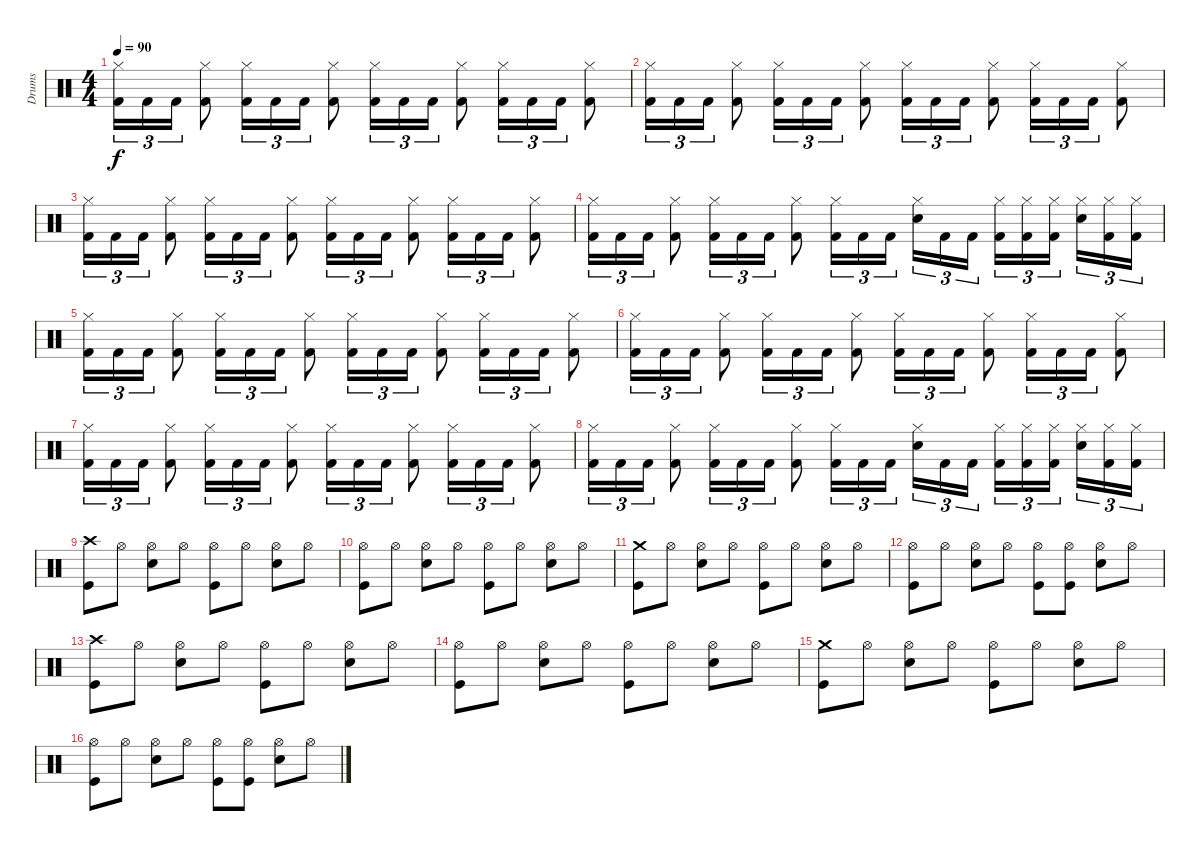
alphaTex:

\track ("Drums" "Drums") {instrument percussion}
\staff {score}
\articulation defaults
\ts (4 4)
\tempo 90
\clef neutral
\ks c
("Hi-Hat (closed)" "Kick (hit) 2").16{tu (3 2) dy f} "Kick (hit) 2".16{tu (3 2)} "Kick (hit) 2".16{tu (3 2)} ("Hi-Hat (closed)" "Kick (hit) 2").8 ("Hi-Hat (closed)" "Kick (hit) 2").16{tu (3 2)} "Kick (hit) 2".16{tu (3 2)} "Kick (hit) 2".16{tu (3 2)} ("Hi-Hat (closed)" "Kick (hit) 2").8 ("Hi-Hat (closed)" "Kick (hit) 2").16{tu (3 2)} "Kick (hit) 2".16{tu (3 2)} "Kick (hit) 2".16{tu (3 2)} ("Hi-Hat (closed)" "Kick (hit) 2").8 ("Hi-Hat (closed)" "Kick (hit) 2").16{tu (3 2)} "Kick (hit) 2".16{tu (3 2)} "Kick (hit) 2".16{tu (3 2)} ("Hi-Hat (closed)" "Kick (hit) 2").8 |
("Hi-Hat (closed)" "Kick (hit) 2").16{tu (3 2)} "Kick (hit) 2".16{tu (3 2)} "Kick (hit) 2".16{tu (3 2)} ("Hi-Hat (closed)" "Kick (hit) 2").8 ("Hi-Hat (closed)" "Kick (hit) 2").16{tu (3 2)} "Kick (hit) 2".16{tu (3 2)} "Kick (hit) 2".16{tu (3 2)} ("Hi-Hat (closed)" "Kick (hit) 2").8 ("Hi-Hat (closed)" "Kick (hit) 2").16{tu (3 2)} "Kick (hit) 2".16{tu (3 2)} "Kick (hit) 2".16{tu (3 2)} ("Hi-Hat (closed)" "Kick (hit) 2").8 ("Hi-Hat (closed)" "Kick (hit) 2").16{tu (3 2)} "Kick (hit) 2".16{tu (3 2)} "Kick (hit) 2".16{tu (3 2)} ("Hi-Hat (closed)" "Kick (hit) 2").8 |
("Hi-Hat (closed)" "Kick (hit) 2").16{tu (3 2)} "Kick (hit) 2".16{tu (3 2)} "Kick (hit) 2".16{tu (3 2)} ("Hi-Hat (closed)" "Kick (hit) 2").8 ("Hi-Hat (closed)" "Kick (hit) 2").16{tu (3 2)} "Kick (hit) 2".16{tu (3 2)} "Kick (hit) 2".16{tu (3 2)} ("Hi-Hat (closed)" "Kick (hit) 2").8 ("Hi-Hat (closed)" "Kick (hit) 2").16{tu (3 2)} "Kick (hit) 2".16{tu (3 2)} "Kick (hit) 2".16{tu (3 2)} ("Hi-Hat (closed)" "Kick (hit) 2").8 ("Hi-Hat (closed)" "Kick (hit) 2").16{tu (3 2)} "Kick (hit) 2".16{tu (3 2)} "Kick (hit) 2".16{tu (3 2)} ("Hi-Hat (closed)" "Kick (hit) 2").8 |
("Hi-Hat (closed)" "Kick (hit) 2").16{tu (3 2)} "Kick (hit) 2".16{tu (3 2)} "Kick (hit) 2".16{tu (3 2)} ("Hi-Hat (closed)" "Kick (hit) 2").8 ("Hi-Hat (closed)" "Kick (hit) 2").16{tu (3 2)} "Kick (hit) 2".16{tu (3 2)} "Kick (hit) 2".16{tu (3 2)} ("Hi-Hat (closed)" "Kick (hit) 2").8 ("Hi-Hat (closed)" "Kick (hit) 2").16{tu (3 2)} "Kick (hit) 2".16{tu (3 2)} "Kick (hit) 2".16{tu (3 2)} ("Hi-Hat (closed)" "Electric Snare (hit)").16{tu (3 2)} "Kick (hit) 2".16{tu (3 2)} "Kick (hit) 2".16{tu (3 2)} ("Hi-Hat (closed)" "Kick (hit) 2").16{tu (3 2)} ("Hi-Hat (closed)" "Kick (hit) 2").16{tu (3 2)} ("Hi-Hat (closed)" "Kick (hit) 2").16{tu (3 2)} ("Hi-Hat (closed)" "Electric Snare (hit)").16{tu (3 2)} ("Hi-Hat (closed)" "Kick (hit) 2").16{tu (3 2)} ("Hi-Hat (closed)" "Kick (hit) 2").16{tu (3 2)} |
("Hi-Hat (closed)" "Kick (hit) 2").16{tu (3 2)} "Kick (hit) 2".16{tu (3 2)} "Kick (hit) 2".16{tu (3 2)} ("Hi-Hat (closed)" "Kick (hit) 2").8 ("Hi-Hat (closed)" "Kick (hit) 2").16{tu (3 2)} "Kick (hit) 2".16{tu (3 2)} "Kick (hit) 2".16{tu (3 2)} ("Hi-Hat (closed)" "Kick (hit) 2").8 ("Hi-Hat (closed)" "Kick (hit) 2").16{tu (3 2)} "Kick (hit) 2".16{tu (3 2)} "Kick (hit) 2".16{tu (3 2)} ("Hi-Hat (closed)" "Kick (hit) 2").8 ("Hi-Hat (closed)" "Kick (hit) 2").16{tu (3 2)} "Kick (hit) 2".16{tu (3 2)} "Kick (hit) 2".16{tu (3 2)} ("Hi-Hat (closed)" "Kick (hit) 2").8 |
("Hi-Hat (closed)" "Kick (hit) 2").16{tu (3 2)} "Kick (hit) 2".16{tu (3 2)} "Kick (hit) 2".16{tu (3 2)} ("Hi-Hat (closed)" "Kick (hit) 2").8 ("Hi-Hat (closed)" "Kick (hit) 2").16{tu (3 2)} "Kick (hit) 2".16{tu (3 2)} "Kick (hit) 2".16{tu (3 2)} ("Hi-Hat (closed)" "Kick (hit) 2").8 ("Hi-Hat (closed)" "Kick (hit) 2").16{tu (3 2)} "Kick (hit) 2".16{tu (3 2)} "Kick (hit) 2".16{tu (3 2)} ("Hi-Hat (closed)" "Kick (hit) 2").8 ("Hi-Hat (closed)" "Kick (hit) 2").16{tu (3 2)} "Kick (hit) 2".16{tu (3 2)} "Kick (hit) 2".16{tu (3 2)} ("Hi-Hat (closed)" "Kick (hit) 2").8 |
("Hi-Hat (closed)" "Kick (hit) 2").16{tu (3 2)} "Kick (hit) 2".16{tu (3 2)} "Kick (hit) 2".16{tu (3 2)} ("Hi-Hat (closed)" "Kick (hit) 2").8 ("Hi-Hat (closed)" "Kick (hit) 2").16{tu (3 2)} "Kick (hit) 2".16{tu (3 2)} "Kick (hit) 2".16{tu (3 2)} ("Hi-Hat (closed)" "Kick (hit) 2").8 ("Hi-Hat (closed)" "Kick (hit) 2").16{tu (3 2)} "Kick (hit) 2".16{tu (3 2)} "Kick (hit) 2".16{tu (3 2)} ("Hi-Hat (closed)" "Kick (hit) 2").8 ("Hi-Hat (closed)" "Kick (hit) 2").16{tu (3 2)} "Kick (hit) 2".16{tu (3 2)} "Kick (hit) 2".16{tu (3 2)} ("Hi-Hat (closed)" "Kick (hit) 2").8 |
("Hi-Hat (closed)" "Kick (hit) 2").16{tu (3 2)} "Kick (hit) 2".16{tu (3 2)} "Kick (hit) 2".16{tu (3 2)} ("Hi-Hat (closed)" "Kick (hit) 2").8 ("Hi-Hat (closed)" "Kick (hit) 2").16{tu (3 2)} "Kick (hit) 2".16{tu (3 2)} "Kick (hit) 2".16{tu (3 2)} ("Hi-Hat (closed)" "Kick (hit) 2").8 ("Hi-Hat (closed)" "Kick (hit) 2").16{tu (3 2)} "Kick (hit) 2".16{tu (3 2)} "Kick (hit) 2".16{tu (3 2)} ("Hi-Hat (closed)" "Electric Snare (hit)").16{tu (3 2)} "Kick (hit) 2".16{tu (3 2)} "Kick (hit) 2".16{tu (3 2)} ("Hi-Hat (closed)" "Kick (hit) 2").16{tu (3 2)} ("Hi-Hat (closed)" "Kick (hit) 2").16{tu (3 2)} ("Hi-Hat (closed)" "Kick (hit) 2").16{tu (3 2)} ("Hi-Hat (closed)" "Electric Snare (hit)").16{tu (3 2)} ("Hi-Hat (closed)" "Kick (hit) 2").16{tu (3 2)} ("Hi-Hat (closed)" "Kick (hit) 2").16{tu (3 2)} |
("Crash high (hit)" "Kick (hit)").8 "Hi-Hat (open)".8 ("Hi-Hat (open)" "Electric Snare (hit)").8 "Hi-Hat (open)".8 ("Hi-Hat (open)" "Kick (hit)").8 "Hi-Hat (open)".8 ("Hi-Hat (open)" "Electric Snare (hit)").8 "Hi-Hat (open)".8 |
("Hi-Hat (open)" "Kick (hit)").8 "Hi-Hat (open)".8 ("Hi-Hat (open)" "Electric Snare (hit)").8 "Hi-Hat (open)".8 ("Hi-Hat (open)" "Kick (hit)").8 "Hi-Hat (open)".8 ("Hi-Hat (open)" "Electric Snare (hit)").8 "Hi-Hat (open)".8 |
("Crash medium (hit)" "Kick (hit)").8 "Hi-Hat (open)".8 ("Hi-Hat (open)" "Electric Snare (hit)").8 "Hi-Hat (open)".8 ("Hi-Hat (open)" "Kick (hit)").8 "Hi-Hat (open)".8 ("Hi-Hat (open)" "Electric Snare (hit)").8 "Hi-Hat (open)".8 |
("Hi-Hat (open)" "Kick (hit)").8 "Hi-Hat (open)".8 ("Hi-Hat (open)" "Electric Snare (hit)").8 "Hi-Hat (open)".8 ("Hi-Hat (open)" "Kick (hit)").8 ("Hi-Hat (open)" "Kick (hit)").8 ("Hi-Hat (open)" "Electric Snare (hit)").8 "Hi-Hat (open)".8 |
("Crash high (hit)" "Kick (hit)").8 "Hi-Hat (open)".8 ("Hi-Hat (open)" "Electric Snare (hit)").8 "Hi-Hat (open)".8 ("Hi-Hat (open)" "Kick (hit)").8 "Hi-Hat (open)".8 ("Hi-Hat (open)" "Electric Snare (hit)").8 "Hi-Hat (open)".8 |
("Hi-Hat (open)" "Kick (hit)").8 "Hi-Hat (open)".8 ("Hi-Hat (open)" "Electric Snare (hit)").8 "Hi-Hat (open)".8 ("Hi-Hat (open)" "Kick (hit)").8 "Hi-Hat (open)".8 ("Hi-Hat (open)" "Electric Snare (hit)").8 "Hi-Hat (open)".8 |
("Crash medium (hit)" "Kick (hit)").8 "Hi-Hat (open)".8 ("Hi-Hat (open)" "Electric Snare (hit)").8 "Hi-Hat (open)".8 ("Hi-Hat (open)" "Kick (hit)").8 "Hi-Hat (open)".8 ("Hi-Hat (open)" "Electric Snare (hit)").8 "Hi-Hat (open)".8 |
("Hi-Hat (open)" "Kick (hit)").8 "Hi-Hat (open)".8 ("Hi-Hat (open)" "Electric Snare (hit)").8 "Hi-Hat (open)".8 ("Hi-Hat (open)" "Kick (hit)").8 ("Hi-Hat (open)" "Kick (hit)").8 ("Hi-Hat (open)" "Electric Snare (hit)").8 "Hi-Hat (open)".8
